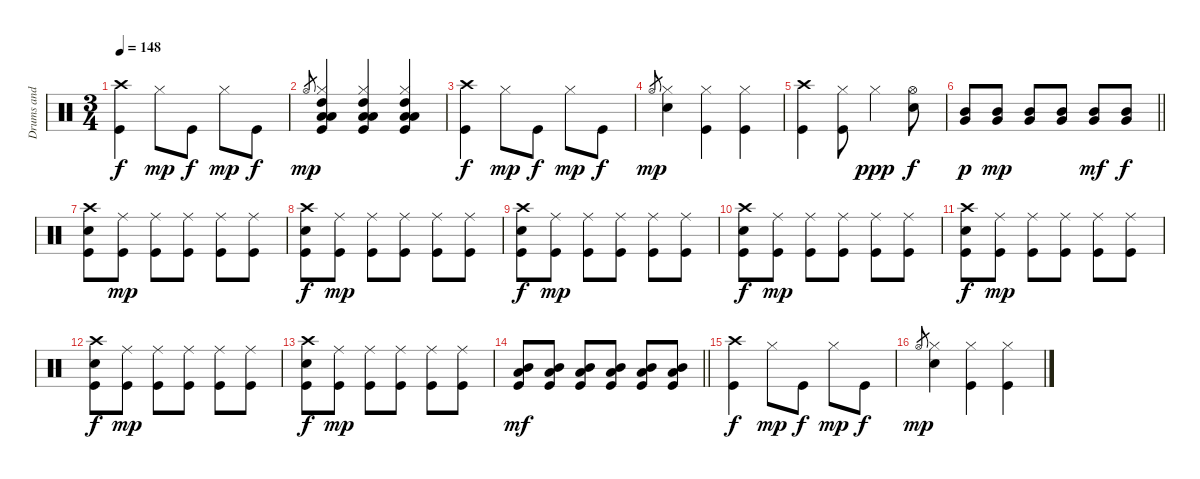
\track ("Drums and percussion" "Drums and ") {instrument percussion}
\staff {score}
\articulation defaults
\ts (3 4)
\tempo 148
\clef neutral
\ks c
("Crash high (hit)" "Kick (hit)").4{dy f} "Hi-Hat (closed)".8{dy mp} "Kick (hit)".8{dy f} "Hi-Hat (closed)".8{dy mp} "Kick (hit)".8{dy f} |
"Hi-Hat (open)".8{gr dy mp} ("Hi-Hat (closed)" "High Tom (hit)" "Low Floor Tom (hit)" "Low Tom (hit)" "Kick (hit)").4 ("Hi-Hat (closed)" "High Tom (hit)" "Low Floor Tom (hit)" "Low Tom (hit)" "Kick (hit)").4 ("Hi-Hat (closed)" "High Tom (hit)" "Low Floor Tom (hit)" "Low Tom (hit)" "Kick (hit)").4 |
("Crash high (hit)" "Kick (hit)").4{dy f} "Hi-Hat (closed)".8{dy mp} "Kick (hit)".8{dy f} "Hi-Hat (closed)".8{dy mp} "Kick (hit)".8{dy f} |
"Hi-Hat (open)".8{gr dy mp} ("Hi-Hat (closed)" "Electric Snare (hit)").4 ("Hi-Hat (closed)" "Kick (hit)").4 ("Hi-Hat (closed)" "Kick (hit)").4 |
("Crash high (hit)" "Kick (hit)").4 ("Kick (hit)" "Hi-Hat (closed)").8 "Hi-Hat (closed)".4{dy ppp} ("Hi-Hat (open)" "Electric Snare (hit)").8{dy f} |
\barLineRight lightlight
("Mid Tom (hit)" "Very Low Tom (hit)").8{dy p} ("Mid Tom (hit)" "Very Low Tom (hit)").8{dy mp} ("Mid Tom (hit)" "Very Low Tom (hit)").8 ("Mid Tom (hit)" "Very Low Tom (hit)").8 ("Mid Tom (hit)" "Very Low Tom (hit)").8{dy mf} ("Mid Tom (hit)" "Very Low Tom (hit)").8{dy f} |
("Kick (hit)" "Electric Snare (hit)" "Crash high (hit)").8 ("Kick (hit)" "Ride (middle)").8{dy mp} ("Kick (hit)" "Ride (middle)").8 ("Kick (hit)" "Ride (middle)").8 ("Kick (hit)" "Ride (middle)").8 ("Kick (hit)" "Ride (middle)").8 |
("Kick (hit)" "Electric Snare (hit)" "Crash high (hit)").8{dy f} ("Kick (hit)" "Ride (middle)").8{dy mp} ("Kick (hit)" "Ride (middle)").8 ("Kick (hit)" "Ride (middle)").8 ("Kick (hit)" "Ride (middle)").8 ("Kick (hit)" "Ride (middle)").8 |
("Kick (hit)" "Electric Snare (hit)" "Crash high (hit)").8{dy f} ("Kick (hit)" "Ride (middle)").8{dy mp} ("Kick (hit)" "Ride (middle)").8 ("Kick (hit)" "Ride (middle)").8 ("Kick (hit)" "Ride (middle)").8 ("Kick (hit)" "Ride (middle)").8 |
("Kick (hit)" "Electric Snare (hit)" "Crash high (hit)").8{dy f} ("Kick (hit)" "Ride (middle)").8{dy mp} ("Kick (hit)" "Ride (middle)").8 ("Kick (hit)" "Ride (middle)").8 ("Kick (hit)" "Ride (middle)").8 ("Kick (hit)" "Ride (middle)").8 |
("Kick (hit)" "Electric Snare (hit)" "Crash high (hit)").8{dy f} ("Kick (hit)" "Ride (middle)").8{dy mp} ("Kick (hit)" "Ride (middle)").8 ("Kick (hit)" "Ride (middle)").8 ("Kick (hit)" "Ride (middle)").8 ("Kick (hit)" "Ride (middle)").8 |
("Kick (hit)" "Electric Snare (hit)" "Crash high (hit)").8{dy f} ("Kick (hit)" "Ride (middle)").8{dy mp} ("Kick (hit)" "Ride (middle)").8 ("Kick (hit)" "Ride (middle)").8 ("Kick (hit)" "Ride (middle)").8 ("Kick (hit)" "Ride (middle)").8 |
("Kick (hit)" "Electric Snare (hit)" "Crash high (hit)").8{dy f} ("Kick (hit)" "Ride (middle)").8{dy mp} ("Kick (hit)" "Ride (middle)").8 ("Kick (hit)" "Ride (middle)").8 ("Kick (hit)" "Ride (middle)").8 ("Kick (hit)" "Ride (middle)").8 |
\barLineRight lightlight
("Low Tom (hit)" "Mid Tom (hit)" "Kick (hit)").8{dy mf} ("Low Tom (hit)" "Mid Tom (hit)" "Kick (hit)").8 ("Low Tom (hit)" "Mid Tom (hit)" "Kick (hit)").8 ("Low Tom (hit)" "Mid Tom (hit)" "Kick (hit)").8 ("Low Tom (hit)" "Mid Tom (hit)" "Kick (hit)").8 ("Low Tom (hit)" "Mid Tom (hit)" "Kick (hit)").8 |
("Crash high (hit)" "Kick (hit)").4{dy f} "Hi-Hat (closed)".8{dy mp} "Kick (hit)".8{dy f} "Hi-Hat (closed)".8{dy mp} "Kick (hit)".8{dy f} |
"Hi-Hat (open)".8{gr dy mp} ("Hi-Hat (closed)" "Electric Snare (hit)").4 ("Hi-Hat (closed)" "Kick (hit)").4 ("Hi-Hat (closed)" "Kick (hit)").4
